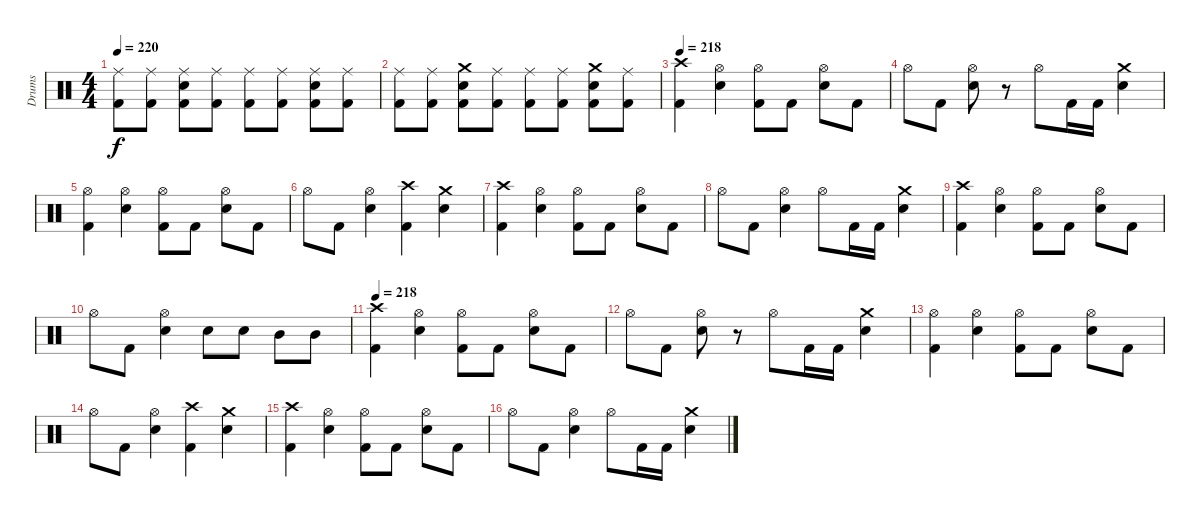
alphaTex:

\track ("Drums" "Drums") {instrument percussion}
\staff {score}
\articulation defaults
\ts (4 4)
\tempo 220
\clef neutral
\ks c
("Kick (hit) 2" "Ride (middle)").8{dy f} ("Kick (hit) 2" "Ride (middle)").8 ("Kick (hit) 2" "Snare (hit) 2" "Ride (middle)").8 ("Kick (hit) 2" "Ride (middle)").8 ("Kick (hit) 2" "Ride (middle)").8 ("Kick (hit) 2" "Ride (middle)").8 ("Kick (hit) 2" "Snare (hit) 2" "Ride (middle)").8 ("Kick (hit) 2" "Ride (middle)").8 |
("Kick (hit) 2" "Ride (middle)").8 ("Kick (hit) 2" "Ride (middle)").8 ("Kick (hit) 2" "Snare (hit) 2" "Crash medium (hit)").8 ("Kick (hit) 2" "Ride (middle)").8 ("Kick (hit) 2" "Ride (middle)").8 ("Kick (hit) 2" "Ride (middle)").8 ("Kick (hit) 2" "Snare (hit) 2" "Crash medium (hit)").8 ("Kick (hit) 2" "Ride (middle)").8 |
\tempo 218
("Crash high (hit)" "Kick (hit) 2").4 ("Hi-Hat (open)" "Snare (hit) 2").4 ("Hi-Hat (open)" "Kick (hit) 2").8 "Kick (hit) 2".8 ("Hi-Hat (open)" "Snare (hit) 2").8 "Kick (hit) 2".8 |
"Hi-Hat (open)".8 "Kick (hit) 2".8 ("Hi-Hat (open)" "Snare (hit) 2").8 r.8 "Hi-Hat (open)".8 "Kick (hit) 2".16 "Kick (hit) 2".16 ("Crash medium (hit)" "Snare (hit) 2").4 |
("Hi-Hat (open)" "Kick (hit) 2").4 ("Hi-Hat (open)" "Snare (hit) 2").4 ("Hi-Hat (open)" "Kick (hit) 2").8 "Kick (hit) 2".8 ("Hi-Hat (open)" "Snare (hit) 2").8 "Kick (hit) 2".8 |
"Hi-Hat (open)".8 "Kick (hit) 2".8 ("Hi-Hat (open)" "Snare (hit) 2").4 ("Crash high (hit)" "Kick (hit) 2").4 ("Crash medium (hit)" "Snare (hit) 2").4 |
("Crash high (hit)" "Kick (hit) 2").4 ("Hi-Hat (open)" "Snare (hit) 2").4 ("Hi-Hat (open)" "Kick (hit) 2").8 "Kick (hit) 2".8 ("Hi-Hat (open)" "Snare (hit) 2").8 "Kick (hit) 2".8 |
"Hi-Hat (open)".8 "Kick (hit) 2".8 ("Hi-Hat (open)" "Snare (hit) 2").4 "Hi-Hat (open)".8 "Kick (hit) 2".16 "Kick (hit) 2".16 ("Crash medium (hit)" "Snare (hit) 2").4 |
("Crash high (hit)" "Kick (hit) 2").4 ("Hi-Hat (open)" "Snare (hit) 2").4 ("Hi-Hat (open)" "Kick (hit) 2").8 "Kick (hit) 2".8 ("Hi-Hat (open)" "Snare (hit) 2").8 "Kick (hit) 2".8 |
"Hi-Hat (open)".8 "Kick (hit) 2".8 ("Hi-Hat (open)" "Snare (hit) 2").4 "Snare (hit) 2".8 "Snare (hit) 2".8 "Mid Tom (hit)".8 "Mid Tom (hit)".8 |
\tempo 218
("Crash high (hit)" "Kick (hit) 2").4 ("Hi-Hat (open)" "Snare (hit) 2").4 ("Hi-Hat (open)" "Kick (hit) 2").8 "Kick (hit) 2".8 ("Hi-Hat (open)" "Snare (hit) 2").8 "Kick (hit) 2".8 |
"Hi-Hat (open)".8 "Kick (hit) 2".8 ("Hi-Hat (open)" "Snare (hit) 2").8 r.8 "Hi-Hat (open)".8 "Kick (hit) 2".16 "Kick (hit) 2".16 ("Crash medium (hit)" "Snare (hit) 2").4 |
("Hi-Hat (open)" "Kick (hit) 2").4 ("Hi-Hat (open)" "Snare (hit) 2").4 ("Hi-Hat (open)" "Kick (hit) 2").8 "Kick (hit) 2".8 ("Hi-Hat (open)" "Snare (hit) 2").8 "Kick (hit) 2".8 |
"Hi-Hat (open)".8 "Kick (hit) 2".8 ("Hi-Hat (open)" "Snare (hit) 2").4 ("Crash high (hit)" "Kick (hit) 2").4 ("Crash medium (hit)" "Snare (hit) 2").4 |
("Crash high (hit)" "Kick (hit) 2").4 ("Hi-Hat (open)" "Snare (hit) 2").4 ("Hi-Hat (open)" "Kick (hit) 2").8 "Kick (hit) 2".8 ("Hi-Hat (open)" "Snare (hit) 2").8 "Kick (hit) 2".8 |
"Hi-Hat (open)".8 "Kick (hit) 2".8 ("Hi-Hat (open)" "Snare (hit) 2").4 "Hi-Hat (open)".8 "Kick (hit) 2".16 "Kick (hit) 2".16 ("Crash medium (hit)" "Snare (hit) 2").4
